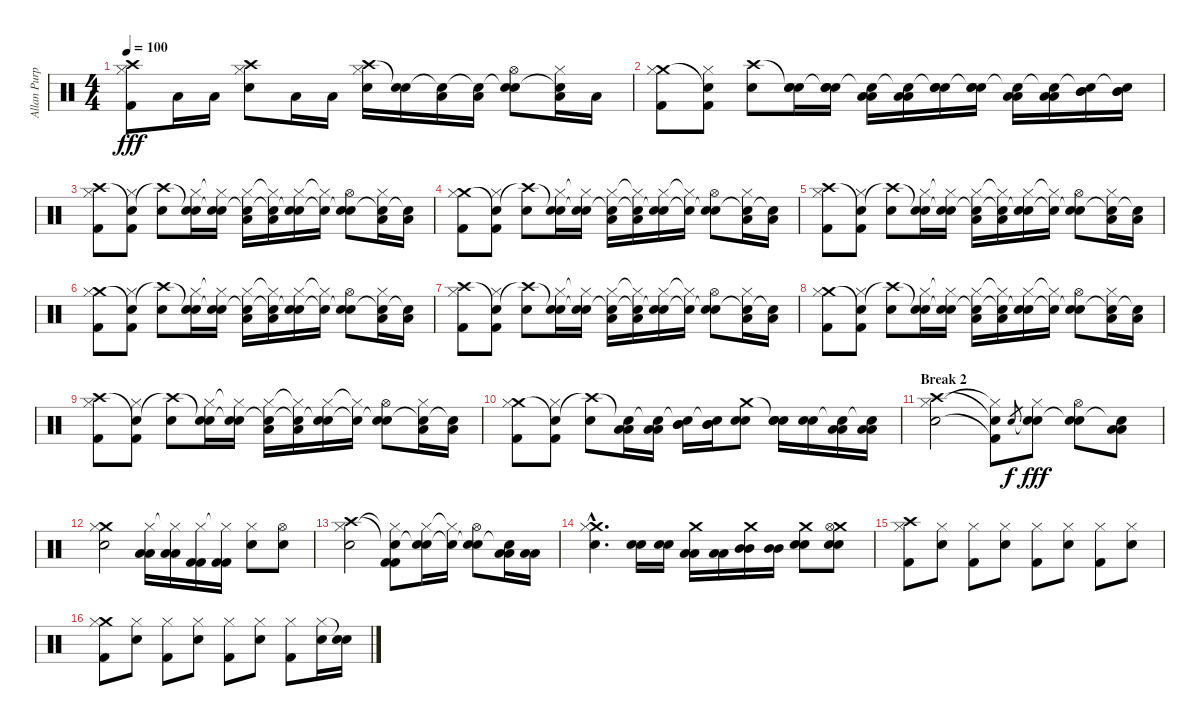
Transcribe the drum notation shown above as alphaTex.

\track ("Allan Purple" "Allan Purp") {instrument percussion}
\staff {score}
\articulation defaults
\ts (4 4)
\tempo 100
\clef neutral
\ks c
("Crash high (hit)" "Hi-Hat (closed)" "Kick (hit) 2").8{dy fff} "Low Tom (hit)".16 "Low Tom (hit)".16 ("Crash high (hit)" "Hi-Hat (closed)" "Snare (hit) 2").8 "Low Tom (hit)".16 "Low Tom (hit)".16 ("Crash high (hit)" "Hi-Hat (closed)" "Electric Snare (hit)").16 ("Snare (hit)"{t} "Electric Snare (hit)").16 ("Snare (hit)"{t} "Low Tom (hit)").16 ("Snare (hit)"{t} "Low Tom (hit)").16 ("Snare (hit)"{t} "Hi-Hat (open)" "Snare (hit) 2").8 ("Snare (hit)"{t} "Hi-Hat (closed)" "Low Tom (hit)").16 "Low Tom (hit)".16 |
("Crash medium (hit)" "Hi-Hat (closed)" "Kick (hit) 2").8 ("Snare (hit)"{t} "Hi-Hat (closed)" "Kick (hit) 2").8 ("Crash high (hit)" "Snare (hit) 2").8 ("Snare (hit)"{t} "Electric Snare (hit)" "Electric Snare (hit)").16 ("Snare (hit)"{t} "Electric Snare (hit)" "Electric Snare (hit)").16 ("Snare (hit)"{t} "Low Tom (hit)" "Low Tom (hit)").16 ("Snare (hit)"{t} "Low Tom (hit)" "Low Tom (hit)").16 ("Snare (hit)"{t} "Electric Snare (hit)" "Electric Snare (hit)").16 ("Snare (hit)"{t} "Electric Snare (hit)" "Electric Snare (hit)").16 ("Snare (hit)"{t} "Low Tom (hit)" "Low Tom (hit)").16 ("Snare (hit)"{t} "Low Tom (hit)" "Low Tom (hit)").16 ("Snare (hit)"{t} "Mid Tom (hit)" "Mid Tom (hit)").16 ("Snare (hit)"{t} "Mid Tom (hit)" "Mid Tom (hit)").16 |
("Crash high (hit)" "Hi-Hat (closed)" "Kick (hit) 2").8 ("Snare (hit)"{t} "Hi-Hat (closed)" "Kick (hit) 2").8 ("Crash high (hit)"{t} "Snare (hit) 2").8 ("Snare (hit)"{t} "Hi-Hat (closed)" "Electric Snare (hit)").16 ("Snare (hit)"{t} "Hi-Hat (closed)"{t} "Electric Snare (hit)").16 ("Snare (hit)"{t} "Hi-Hat (closed)" "Low Tom (hit)").16 ("Snare (hit)"{t} "Hi-Hat (closed)"{t} "Low Tom (hit)").16 ("Snare (hit)"{t} "Hi-Hat (closed)" "Electric Snare (hit)").16 ("Snare (hit)"{t} "Hi-Hat (closed)"{t}).16 ("Snare (hit)"{t} "Hi-Hat (open)" "Electric Snare (hit)").8 ("Snare (hit)"{t} "Hi-Hat (closed)" "Low Tom (hit)").16 ("Snare (hit)"{t} "Low Tom (hit)").16 |
("Crash medium (hit)" "Hi-Hat (closed)" "Kick (hit) 2").8 ("Snare (hit)"{t} "Hi-Hat (closed)" "Kick (hit) 2").8 ("Crash high (hit)"{t} "Snare (hit) 2").8 ("Snare (hit)"{t} "Hi-Hat (closed)" "Electric Snare (hit)").16 ("Snare (hit)"{t} "Hi-Hat (closed)"{t} "Electric Snare (hit)").16 ("Snare (hit)"{t} "Hi-Hat (closed)" "Low Tom (hit)").16 ("Snare (hit)"{t} "Hi-Hat (closed)"{t} "Low Tom (hit)").16 ("Snare (hit)"{t} "Hi-Hat (closed)" "Electric Snare (hit)").16 ("Snare (hit)"{t} "Hi-Hat (closed)"{t}).16 ("Snare (hit)"{t} "Hi-Hat (open)" "Electric Snare (hit)").8 ("Snare (hit)"{t} "Hi-Hat (closed)" "Low Tom (hit)").16 ("Snare (hit)"{t} "Low Tom (hit)").16 |
("Crash high (hit)" "Hi-Hat (closed)" "Kick (hit) 2").8 ("Snare (hit)"{t} "Hi-Hat (closed)" "Kick (hit) 2").8 ("Crash high (hit)"{t} "Snare (hit) 2").8 ("Snare (hit)"{t} "Hi-Hat (closed)" "Electric Snare (hit)").16 ("Snare (hit)"{t} "Hi-Hat (closed)"{t} "Electric Snare (hit)").16 ("Snare (hit)"{t} "Hi-Hat (closed)" "Low Tom (hit)").16 ("Snare (hit)"{t} "Hi-Hat (closed)"{t} "Low Tom (hit)").16 ("Snare (hit)"{t} "Hi-Hat (closed)" "Electric Snare (hit)").16 ("Snare (hit)"{t} "Hi-Hat (closed)"{t}).16 ("Snare (hit)"{t} "Hi-Hat (open)" "Electric Snare (hit)").8 ("Snare (hit)"{t} "Hi-Hat (closed)" "Low Tom (hit)").16 ("Snare (hit)"{t} "Low Tom (hit)").16 |
("Crash medium (hit)" "Hi-Hat (closed)" "Kick (hit) 2").8 ("Snare (hit)"{t} "Hi-Hat (closed)" "Kick (hit) 2").8 ("Crash high (hit)"{t} "Snare (hit) 2").8 ("Snare (hit)"{t} "Hi-Hat (closed)" "Electric Snare (hit)").16 ("Snare (hit)"{t} "Hi-Hat (closed)"{t} "Electric Snare (hit)").16 ("Snare (hit)"{t} "Hi-Hat (closed)" "Low Tom (hit)").16 ("Snare (hit)"{t} "Hi-Hat (closed)"{t} "Low Tom (hit)").16 ("Snare (hit)"{t} "Hi-Hat (closed)" "Electric Snare (hit)").16 ("Snare (hit)"{t} "Hi-Hat (closed)"{t}).16 ("Snare (hit)"{t} "Hi-Hat (open)" "Electric Snare (hit)").8 ("Snare (hit)"{t} "Hi-Hat (closed)" "Low Tom (hit)").16 ("Snare (hit)"{t} "Low Tom (hit)").16 |
("Crash high (hit)" "Hi-Hat (closed)" "Kick (hit) 2").8 ("Snare (hit)"{t} "Hi-Hat (closed)" "Kick (hit) 2").8 ("Crash high (hit)"{t} "Snare (hit) 2").8 ("Snare (hit)"{t} "Hi-Hat (closed)" "Electric Snare (hit)").16 ("Snare (hit)"{t} "Hi-Hat (closed)"{t} "Electric Snare (hit)").16 ("Snare (hit)"{t} "Hi-Hat (closed)" "Low Tom (hit)").16 ("Snare (hit)"{t} "Hi-Hat (closed)"{t} "Low Tom (hit)").16 ("Snare (hit)"{t} "Hi-Hat (closed)" "Electric Snare (hit)").16 ("Snare (hit)"{t} "Hi-Hat (closed)"{t}).16 ("Snare (hit)"{t} "Hi-Hat (open)" "Electric Snare (hit)").8 ("Snare (hit)"{t} "Hi-Hat (closed)" "Low Tom (hit)").16 ("Snare (hit)"{t} "Low Tom (hit)").16 |
("Crash medium (hit)" "Hi-Hat (closed)" "Kick (hit) 2").8 ("Snare (hit)"{t} "Hi-Hat (closed)" "Kick (hit) 2").8 ("Crash high (hit)"{t} "Snare (hit) 2").8 ("Snare (hit)"{t} "Hi-Hat (closed)" "Electric Snare (hit)").16 ("Snare (hit)"{t} "Hi-Hat (closed)"{t} "Electric Snare (hit)").16 ("Snare (hit)"{t} "Hi-Hat (closed)" "Low Tom (hit)").16 ("Snare (hit)"{t} "Hi-Hat (closed)"{t} "Low Tom (hit)").16 ("Snare (hit)"{t} "Hi-Hat (closed)" "Electric Snare (hit)").16 ("Snare (hit)"{t} "Hi-Hat (closed)"{t}).16 ("Snare (hit)"{t} "Hi-Hat (open)" "Electric Snare (hit)").8 ("Snare (hit)"{t} "Hi-Hat (closed)" "Low Tom (hit)").16 ("Snare (hit)"{t} "Low Tom (hit)").16 |
("Crash high (hit)" "Hi-Hat (closed)" "Kick (hit) 2").8 ("Snare (hit)"{t} "Hi-Hat (closed)" "Kick (hit) 2").8 ("Crash high (hit)"{t} "Snare (hit) 2").8 ("Snare (hit)"{t} "Hi-Hat (closed)" "Electric Snare (hit)").16 ("Snare (hit)"{t} "Hi-Hat (closed)"{t} "Electric Snare (hit)").16 ("Snare (hit)"{t} "Hi-Hat (closed)" "Low Tom (hit)").16 ("Snare (hit)"{t} "Hi-Hat (closed)"{t} "Low Tom (hit)").16 ("Snare (hit)"{t} "Hi-Hat (closed)" "Electric Snare (hit)").16 ("Snare (hit)"{t} "Hi-Hat (closed)"{t}).16 ("Snare (hit)"{t} "Hi-Hat (open)" "Electric Snare (hit)").8 ("Snare (hit)"{t} "Hi-Hat (closed)" "Low Tom (hit)").16 ("Snare (hit)"{t} "Low Tom (hit)").16 |
("Crash medium (hit)" "Hi-Hat (closed)" "Kick (hit) 2").8 ("Snare (hit)"{t} "Hi-Hat (closed)" "Kick (hit) 2").8 ("Crash high (hit)"{t} "Snare (hit) 2").8 ("Snare (hit)"{t} "Low Tom (hit)" "Low Tom (hit)").16 ("Snare (hit)"{t} "Low Tom (hit)" "Low Tom (hit)").16 ("Snare (hit)"{t} "Mid Tom (hit)" "Mid Tom (hit)").16 ("Snare (hit)"{t} "Mid Tom (hit)" "Mid Tom (hit)").16 ("Crash medium (hit)" "Snare (hit) 2" "Snare (hit) 2").8 ("Snare (hit)"{t} "Electric Snare (hit)" "Electric Snare (hit)").16 ("Electric Snare (hit)" "Electric Snare (hit)").16 ("Snare (hit)"{t} "Low Tom (hit)" "Low Tom (hit)").16 ("Snare (hit)"{t} "Low Tom (hit)" "Low Tom (hit)").16 |
\section ("" "Break 2")
("Crash high (hit)" "Hi-Hat (closed)" "Snare (hit) 2").2 ("Snare (hit)"{t} "Hi-Hat (closed)"{t} "Kick (hit) 2"{t}).8 "Electric Snare (hit)".8{gr dy f} ("Snare (hit)"{t} "Hi-Hat (closed)" "Electric Snare (hit)").8{dy fff} ("Snare (hit)"{t} "Hi-Hat (open)" "Electric Snare (hit)").8 ("Snare (hit)"{t} "Low Tom (hit)" "Low Tom (hit)").8 |
("Crash medium (hit)" "Hi-Hat (closed)" "Snare (hit) 2").2 ("Hi-Hat (closed)" "Low Tom (hit)" "Low Tom (hit)").16 ("Hi-Hat (closed)"{t} "Low Tom (hit)" "Low Tom (hit)").16 ("Hi-Hat (closed)" "Kick (hit) 2" "Kick (hit) 2").16 ("Hi-Hat (closed)"{t} "Kick (hit) 2" "Kick (hit) 2").16 ("Hi-Hat (closed)" "Electric Snare (hit)").8 ("Hi-Hat (open)" "Electric Snare (hit)").8 |
("Crash high (hit)" "Hi-Hat (closed)" "Snare (hit) 2").2 ("Snare (hit)"{t} "Hi-Hat (closed)"{t} "Kick (hit) 2" "Kick (hit) 2").8 ("Snare (hit)"{t} "Hi-Hat (closed)" "Electric Snare (hit)").16 ("Snare (hit)"{t} "Hi-Hat (closed)"{t}).16 ("Snare (hit)"{t} "Hi-Hat (open)" "Electric Snare (hit)").8 ("Snare (hit)"{t} "Low Tom (hit)" "Low Tom (hit)").16 ("Low Tom (hit)" "Low Tom (hit)").16 |
("Crash medium (hit)"{hac} "Hi-Hat (closed)"{hac} "Snare (hit) 2"{hac}).4{d} ("Electric Snare (hit)" "Electric Snare (hit)").16 ("Electric Snare (hit)" "Electric Snare (hit)").16 ("Crash medium (hit)" "Low Tom (hit)" "Low Tom (hit)").16 ("Low Tom (hit)" "Low Tom (hit)").16 ("Crash medium (hit)" "Mid Tom (hit)" "Mid Tom (hit)").16 ("Mid Tom (hit)" "Mid Tom (hit)").16 ("Crash medium (hit)" "Electric Snare (hit)" "Electric Snare (hit)").8 ("Crash medium (hit)" "Hi-Hat (open)" "Electric Snare (hit)" "Electric Snare (hit)").8 |
("Crash high (hit)" "Hi-Hat (closed)" "Kick (hit) 2").8 ("Hi-Hat (closed)" "Electric Snare (hit)").8 ("Hi-Hat (closed)" "Kick (hit) 2").8 ("Hi-Hat (closed)" "Electric Snare (hit)").8 ("Hi-Hat (closed)" "Kick (hit) 2").8 ("Hi-Hat (closed)" "Electric Snare (hit)").8 ("Hi-Hat (closed)" "Kick (hit) 2").8 ("Hi-Hat (closed)" "Electric Snare (hit)").8 |
("Crash medium (hit)" "Hi-Hat (closed)" "Kick (hit) 2").8 ("Hi-Hat (closed)" "Electric Snare (hit)").8 ("Hi-Hat (closed)" "Kick (hit) 2").8 ("Hi-Hat (closed)" "Electric Snare (hit)").8 ("Hi-Hat (closed)" "Kick (hit) 2").8 ("Hi-Hat (closed)" "Electric Snare (hit)").8 ("Hi-Hat (closed)" "Kick (hit) 2").8 ("Hi-Hat (closed)" "Electric Snare (hit)").16 ("Snare (hit)"{t} "Electric Snare (hit)").16
